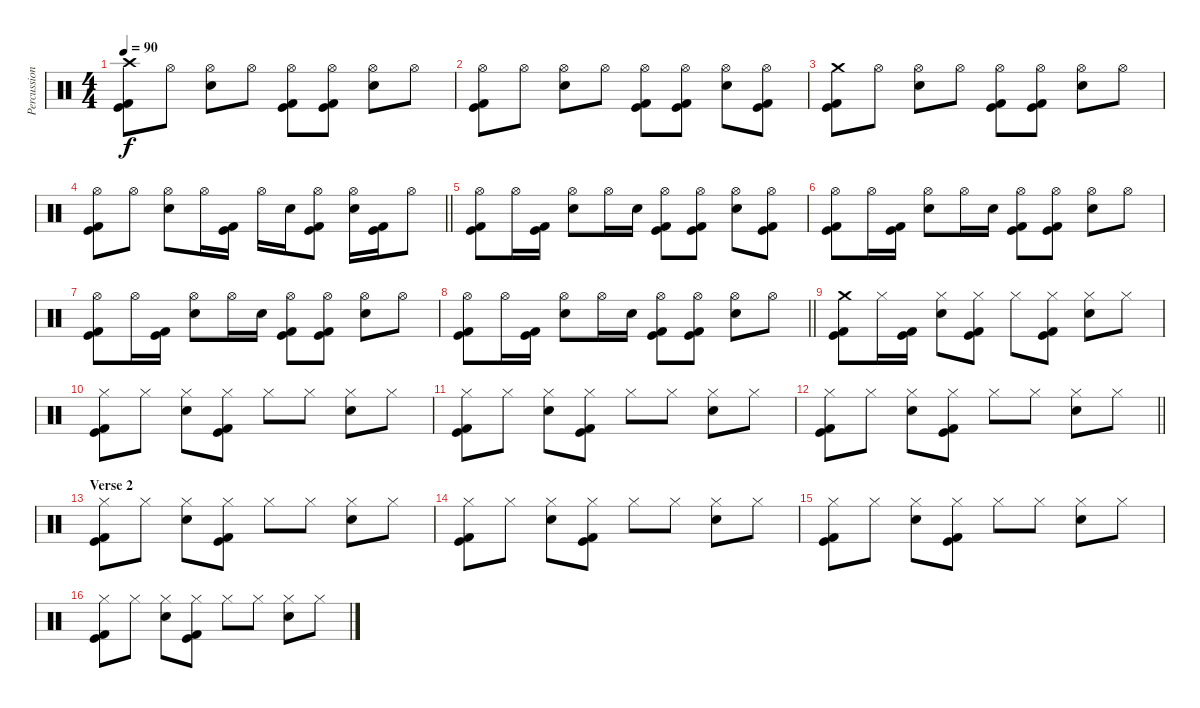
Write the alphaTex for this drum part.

\track ("Percussion" "Percussion") {instrument percussion}
\staff {score}
\articulation defaults
\ts (4 4)
\tempo 90
\clef neutral
\ks c
("Crash high (hit)" "Kick (hit)" "Kick (hit) 2").8{dy f} "Hi-Hat (open)".8 ("Hi-Hat (open)" "Electric Snare (hit)").8 "Hi-Hat (open)".8 ("Hi-Hat (open)" "Kick (hit)" "Kick (hit) 2").8 ("Hi-Hat (open)" "Kick (hit)" "Kick (hit) 2").8 ("Hi-Hat (open)" "Electric Snare (hit)").8 "Hi-Hat (open)".8 |
("Hi-Hat (open)" "Kick (hit)" "Kick (hit) 2").8 "Hi-Hat (open)".8 ("Hi-Hat (open)" "Electric Snare (hit)").8 "Hi-Hat (open)".8 ("Hi-Hat (open)" "Kick (hit)" "Kick (hit) 2").8 ("Hi-Hat (open)" "Kick (hit)" "Kick (hit) 2").8 ("Hi-Hat (open)" "Electric Snare (hit)").8 ("Hi-Hat (open)" "Kick (hit)" "Kick (hit) 2").8 |
("Crash medium (hit)" "Kick (hit)" "Kick (hit) 2").8 "Hi-Hat (open)".8 ("Hi-Hat (open)" "Electric Snare (hit)").8 "Hi-Hat (open)".8 ("Hi-Hat (open)" "Kick (hit)" "Kick (hit) 2").8 ("Hi-Hat (open)" "Kick (hit)" "Kick (hit) 2").8 ("Hi-Hat (open)" "Electric Snare (hit)").8 "Hi-Hat (open)".8 |
\barLineRight lightlight
("Hi-Hat (open)" "Kick (hit)" "Kick (hit) 2").8 "Hi-Hat (open)".8 ("Hi-Hat (open)" "Electric Snare (hit)").8 "Hi-Hat (open)".16 ("Kick (hit)" "Kick (hit) 2").16 "Hi-Hat (open)".16 "Electric Snare (hit)".16 ("Hi-Hat (open)" "Kick (hit)" "Kick (hit) 2").8 ("Hi-Hat (open)" "Electric Snare (hit)").16 ("Kick (hit)" "Kick (hit) 2").16 "Hi-Hat (open)".8 |
\section ("" "")
("Hi-Hat (open)" "Kick (hit)" "Kick (hit) 2").8 "Hi-Hat (open)".16 ("Kick (hit)" "Kick (hit) 2").16 ("Hi-Hat (open)" "Electric Snare (hit)").8 "Hi-Hat (open)".16 "Electric Snare (hit)".16 ("Hi-Hat (open)" "Kick (hit)" "Kick (hit) 2").8 ("Hi-Hat (open)" "Kick (hit)" "Kick (hit) 2").8 ("Hi-Hat (open)" "Electric Snare (hit)").8 ("Hi-Hat (open)" "Kick (hit)" "Kick (hit) 2").8 |
("Hi-Hat (open)" "Kick (hit)" "Kick (hit) 2").8 "Hi-Hat (open)".16 ("Kick (hit)" "Kick (hit) 2").16 ("Hi-Hat (open)" "Electric Snare (hit)").8 "Hi-Hat (open)".16 "Electric Snare (hit)".16 ("Hi-Hat (open)" "Kick (hit)" "Kick (hit) 2").8 ("Hi-Hat (open)" "Kick (hit)" "Kick (hit) 2").8 ("Hi-Hat (open)" "Electric Snare (hit)").8 "Hi-Hat (open)".8 |
("Hi-Hat (open)" "Kick (hit)" "Kick (hit) 2").8 "Hi-Hat (open)".16 ("Kick (hit)" "Kick (hit) 2").16 ("Hi-Hat (open)" "Electric Snare (hit)").8 "Hi-Hat (open)".16 "Electric Snare (hit)".16 ("Hi-Hat (open)" "Kick (hit)" "Kick (hit) 2").8 ("Hi-Hat (open)" "Kick (hit)" "Kick (hit) 2").8 ("Hi-Hat (open)" "Electric Snare (hit)").8 "Hi-Hat (open)".8 |
\barLineRight lightlight
("Hi-Hat (open)" "Kick (hit)" "Kick (hit) 2").8 "Hi-Hat (open)".16 ("Kick (hit)" "Kick (hit) 2").16 ("Hi-Hat (open)" "Electric Snare (hit)").8 "Hi-Hat (open)".16 "Electric Snare (hit)".16 ("Hi-Hat (open)" "Kick (hit)" "Kick (hit) 2").8 ("Hi-Hat (open)" "Kick (hit)" "Kick (hit) 2").8 ("Hi-Hat (open)" "Electric Snare (hit)").8 "Hi-Hat (open)".8 |
\section ("" "")
("Crash medium (hit)" "Kick (hit)" "Kick (hit) 2").8 "Hi-Hat (closed)".16 ("Kick (hit)" "Kick (hit) 2").16 ("Hi-Hat (closed)" "Electric Snare (hit)").8 ("Hi-Hat (closed)" "Kick (hit)" "Kick (hit) 2").8 "Hi-Hat (closed)".8 ("Hi-Hat (closed)" "Kick (hit)" "Kick (hit) 2").8 ("Hi-Hat (closed)" "Electric Snare (hit)").8 "Hi-Hat (closed)".8 |
("Hi-Hat (closed)" "Kick (hit)" "Kick (hit) 2").8 "Hi-Hat (closed)".8 ("Hi-Hat (closed)" "Electric Snare (hit)").8 ("Hi-Hat (closed)" "Kick (hit)" "Kick (hit) 2").8 "Hi-Hat (closed)".8 "Hi-Hat (closed)".8 ("Hi-Hat (closed)" "Electric Snare (hit)").8 "Hi-Hat (closed)".8 |
("Hi-Hat (closed)" "Kick (hit)" "Kick (hit) 2").8 "Hi-Hat (closed)".8 ("Hi-Hat (closed)" "Electric Snare (hit)").8 ("Hi-Hat (closed)" "Kick (hit)" "Kick (hit) 2").8 "Hi-Hat (closed)".8 "Hi-Hat (closed)".8 ("Hi-Hat (closed)" "Electric Snare (hit)").8 "Hi-Hat (closed)".8 |
\barLineRight lightlight
("Hi-Hat (closed)" "Kick (hit)" "Kick (hit) 2").8 "Hi-Hat (closed)".8 ("Hi-Hat (closed)" "Electric Snare (hit)").8 ("Hi-Hat (closed)" "Kick (hit)" "Kick (hit) 2").8 "Hi-Hat (closed)".8 "Hi-Hat (closed)".8 ("Hi-Hat (closed)" "Electric Snare (hit)").8 "Hi-Hat (closed)".8 |
\section ("" "Verse 2")
("Hi-Hat (closed)" "Kick (hit)" "Kick (hit) 2").8 "Hi-Hat (closed)".8 ("Hi-Hat (closed)" "Electric Snare (hit)").8 ("Hi-Hat (closed)" "Kick (hit)" "Kick (hit) 2").8 "Hi-Hat (closed)".8 "Hi-Hat (closed)".8 ("Hi-Hat (closed)" "Electric Snare (hit)").8 "Hi-Hat (closed)".8 |
("Hi-Hat (closed)" "Kick (hit)" "Kick (hit) 2").8 "Hi-Hat (closed)".8 ("Hi-Hat (closed)" "Electric Snare (hit)").8 ("Hi-Hat (closed)" "Kick (hit)" "Kick (hit) 2").8 "Hi-Hat (closed)".8 "Hi-Hat (closed)".8 ("Hi-Hat (closed)" "Electric Snare (hit)").8 "Hi-Hat (closed)".8 |
("Hi-Hat (closed)" "Kick (hit)" "Kick (hit) 2").8 "Hi-Hat (closed)".8 ("Hi-Hat (closed)" "Electric Snare (hit)").8 ("Hi-Hat (closed)" "Kick (hit)" "Kick (hit) 2").8 "Hi-Hat (closed)".8 "Hi-Hat (closed)".8 ("Hi-Hat (closed)" "Electric Snare (hit)").8 "Hi-Hat (closed)".8 |
("Hi-Hat (closed)" "Kick (hit)" "Kick (hit) 2").8 "Hi-Hat (closed)".8 ("Hi-Hat (closed)" "Electric Snare (hit)").8 ("Hi-Hat (closed)" "Kick (hit)" "Kick (hit) 2").8 "Hi-Hat (closed)".8 "Hi-Hat (closed)".8 ("Hi-Hat (closed)" "Electric Snare (hit)").8 "Hi-Hat (closed)".8
